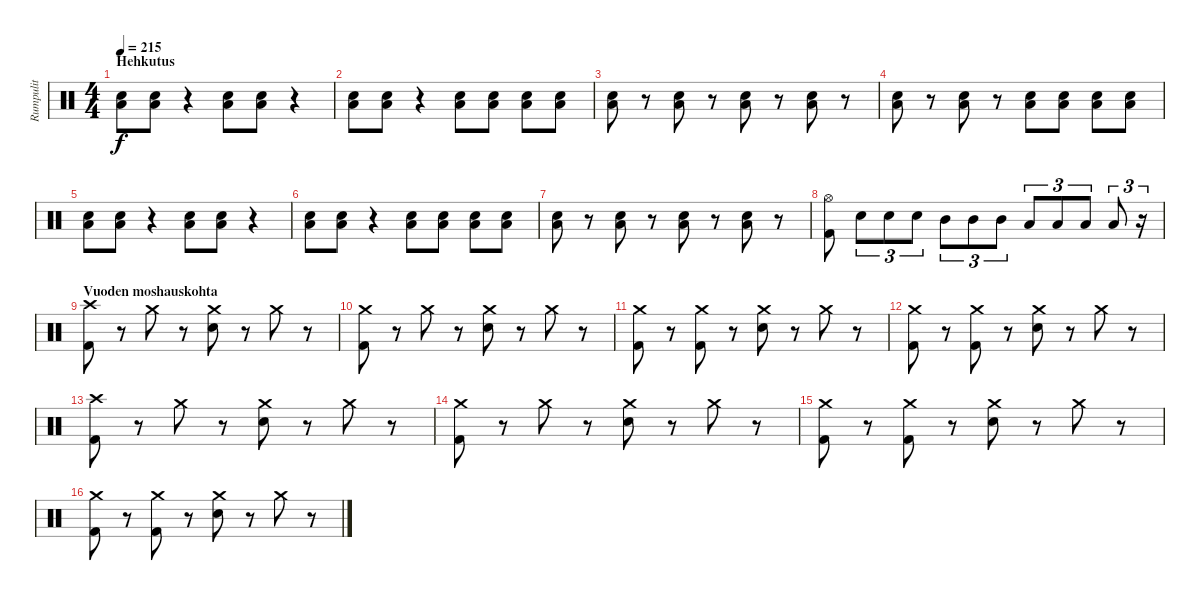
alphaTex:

\track ("Rumpulit" "Rumpulit") {instrument percussion}
\staff {score}
\articulation defaults
\ts (4 4)
\section ("" "Hehkutus")
\tempo 215
\clef neutral
\ks c
("Electric Snare (hit)" "Low Floor Tom (hit)").8{dy f} ("Electric Snare (hit)" "Low Floor Tom (hit)").8 r.4 ("Electric Snare (hit)" "Low Floor Tom (hit)").8 ("Electric Snare (hit)" "Low Floor Tom (hit)").8 r.4 |
("Electric Snare (hit)" "Low Floor Tom (hit)").8 ("Electric Snare (hit)" "Low Floor Tom (hit)").8 r.4 ("Electric Snare (hit)" "Low Floor Tom (hit)").8 ("Electric Snare (hit)" "Low Floor Tom (hit)").8 ("Electric Snare (hit)" "Low Floor Tom (hit)").8 ("Electric Snare (hit)" "Low Floor Tom (hit)").8 |
("Electric Snare (hit)" "Low Floor Tom (hit)").8 r.8 ("Electric Snare (hit)" "Low Floor Tom (hit)").8 r.8 ("Electric Snare (hit)" "Low Floor Tom (hit)").8 r.8 ("Electric Snare (hit)" "Low Floor Tom (hit)").8 r.8 |
("Electric Snare (hit)" "Low Floor Tom (hit)").8 r.8 ("Electric Snare (hit)" "Low Floor Tom (hit)").8 r.8 ("Electric Snare (hit)" "Low Floor Tom (hit)").8 ("Electric Snare (hit)" "Low Floor Tom (hit)").8 ("Electric Snare (hit)" "Low Floor Tom (hit)").8 ("Electric Snare (hit)" "Low Floor Tom (hit)").8 |
("Electric Snare (hit)" "Low Floor Tom (hit)").8 ("Electric Snare (hit)" "Low Floor Tom (hit)").8 r.4 ("Electric Snare (hit)" "Low Floor Tom (hit)").8 ("Electric Snare (hit)" "Low Floor Tom (hit)").8 r.4 |
("Electric Snare (hit)" "Low Floor Tom (hit)").8 ("Electric Snare (hit)" "Low Floor Tom (hit)").8 r.4 ("Electric Snare (hit)" "Low Floor Tom (hit)").8 ("Electric Snare (hit)" "Low Floor Tom (hit)").8 ("Electric Snare (hit)" "Low Floor Tom (hit)").8 ("Electric Snare (hit)" "Low Floor Tom (hit)").8 |
("Electric Snare (hit)" "Low Floor Tom (hit)").8 r.8 ("Electric Snare (hit)" "Low Floor Tom (hit)").8 r.8 ("Electric Snare (hit)" "Low Floor Tom (hit)").8 r.8 ("Electric Snare (hit)" "Low Floor Tom (hit)").8 r.8 |
("Hi-Hat (open)" "Kick (hit) 2").8 "Electric Snare (hit)".8{tu (3 2)} "Electric Snare (hit)".8{tu (3 2)} "Electric Snare (hit)".8{tu (3 2)} "Mid Tom (hit)".8{tu (3 2)} "Mid Tom (hit)".8{tu (3 2)} "Mid Tom (hit)".8{tu (3 2)} "Low Tom (hit)".8{tu (3 2)} "Low Tom (hit)".8{tu (3 2)} "Low Tom (hit)".8{tu (3 2)} "Low Tom (hit)".8{tu (3 2)} r.16{tu (3 2)} |
\section ("" "Vuoden moshauskohta")
("Crash high (hit)" "Kick (hit) 2").8 r.8 "Crash medium (hit)".8 r.8 ("Crash medium (hit)" "Electric Snare (hit)").8 r.8 "Crash medium (hit)".8 r.8 |
("Crash medium (hit)" "Kick (hit) 2").8 r.8 "Crash medium (hit)".8 r.8 ("Crash medium (hit)" "Electric Snare (hit)").8 r.8 "Crash medium (hit)".8 r.8 |
("Crash medium (hit)" "Kick (hit) 2").8 r.8 ("Crash medium (hit)" "Kick (hit) 2").8 r.8 ("Crash medium (hit)" "Electric Snare (hit)").8 r.8 "Crash medium (hit)".8 r.8 |
("Crash medium (hit)" "Kick (hit) 2").8 r.8 ("Crash medium (hit)" "Kick (hit) 2").8 r.8 ("Crash medium (hit)" "Electric Snare (hit)").8 r.8 "Crash medium (hit)".8 r.8 |
("Crash high (hit)" "Kick (hit) 2").8 r.8 "Crash medium (hit)".8 r.8 ("Crash medium (hit)" "Electric Snare (hit)").8 r.8 "Crash medium (hit)".8 r.8 |
("Crash medium (hit)" "Kick (hit) 2").8 r.8 "Crash medium (hit)".8 r.8 ("Crash medium (hit)" "Electric Snare (hit)").8 r.8 "Crash medium (hit)".8 r.8 |
("Crash medium (hit)" "Kick (hit) 2").8 r.8 ("Crash medium (hit)" "Kick (hit) 2").8 r.8 ("Crash medium (hit)" "Electric Snare (hit)").8 r.8 "Crash medium (hit)".8 r.8 |
("Crash medium (hit)" "Kick (hit) 2").8 r.8 ("Crash medium (hit)" "Kick (hit) 2").8 r.8 ("Crash medium (hit)" "Electric Snare (hit)").8 r.8 "Crash medium (hit)".8 r.8
